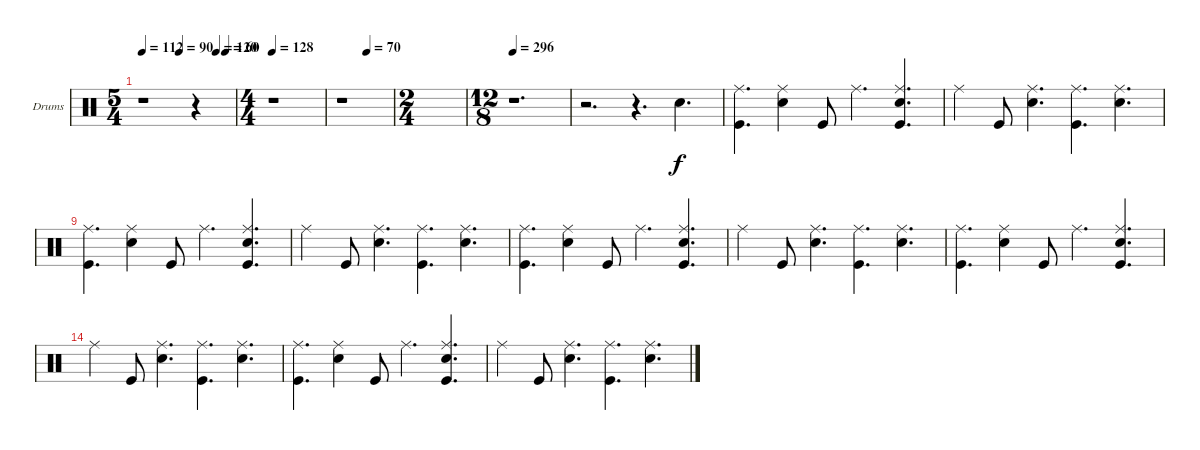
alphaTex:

\bracketExtendMode nobrackets
\firstSystemTrackNameOrientation horizontal
\otherSystemsTrackNameOrientation horizontal
\defaultBarNumberDisplay FirstOfSystem
\track ("Drumkit" "Drums") {instrument percussion}
\staff {score}
\articulation defaults
\ts (5 4)
\tempo 112
\tempo (90 0.4)
\tempo (120 0.8)
\tempo (60 0.9)
\clef neutral
\ks c
r.1{dy ff} r.4 |
\ts (4 4)
\tempo 128
r.1 |
\tempo (70 0.5)
r.1 |
\ts (2 4)
|
\ts (12 8)
\tempo 296
r.1{d} |
r.2{d} r.4{d} "Snare (hit) 2".4{d dy f} |
("Ride (middle)" "Kick (hit)").4{d} ("Ride (middle)" "Snare (hit) 2").4 "Kick (hit)".8 "Ride (middle)".4{d} ("Ride (middle)" "Snare (hit) 2" "Kick (hit)").4{d} |
"Ride (middle)".4 "Kick (hit)".8 ("Ride (middle)" "Snare (hit) 2").4{d} ("Ride (middle)" "Kick (hit)").4{d} ("Ride (middle)" "Snare (hit) 2").4{d} |
("Ride (middle)" "Kick (hit)").4{d} ("Ride (middle)" "Snare (hit) 2").4 "Kick (hit)".8 "Ride (middle)".4{d} ("Ride (middle)" "Snare (hit) 2" "Kick (hit)").4{d} |
"Ride (middle)".4 "Kick (hit)".8 ("Ride (middle)" "Snare (hit) 2").4{d} ("Ride (middle)" "Kick (hit)").4{d} ("Ride (middle)" "Snare (hit) 2").4{d} |
("Ride (middle)" "Kick (hit)").4{d} ("Ride (middle)" "Snare (hit) 2").4 "Kick (hit)".8 "Ride (middle)".4{d} ("Ride (middle)" "Snare (hit) 2" "Kick (hit)").4{d} |
"Ride (middle)".4 "Kick (hit)".8 ("Ride (middle)" "Snare (hit) 2").4{d} ("Ride (middle)" "Kick (hit)").4{d} ("Ride (middle)" "Snare (hit) 2").4{d} |
("Ride (middle)" "Kick (hit)").4{d} ("Ride (middle)" "Snare (hit) 2").4 "Kick (hit)".8 "Ride (middle)".4{d} ("Ride (middle)" "Snare (hit) 2" "Kick (hit)").4{d} |
"Ride (middle)".4 "Kick (hit)".8 ("Ride (middle)" "Snare (hit) 2").4{d} ("Ride (middle)" "Kick (hit)").4{d} ("Ride (middle)" "Snare (hit) 2").4{d} |
("Ride (middle)" "Kick (hit)").4{d} ("Ride (middle)" "Snare (hit) 2").4 "Kick (hit)".8 "Ride (middle)".4{d} ("Ride (middle)" "Snare (hit) 2" "Kick (hit)").4{d} |
"Ride (middle)".4 "Kick (hit)".8 ("Ride (middle)" "Snare (hit) 2").4{d} ("Ride (middle)" "Kick (hit)").4{d} ("Ride (middle)" "Snare (hit) 2").4{d}
